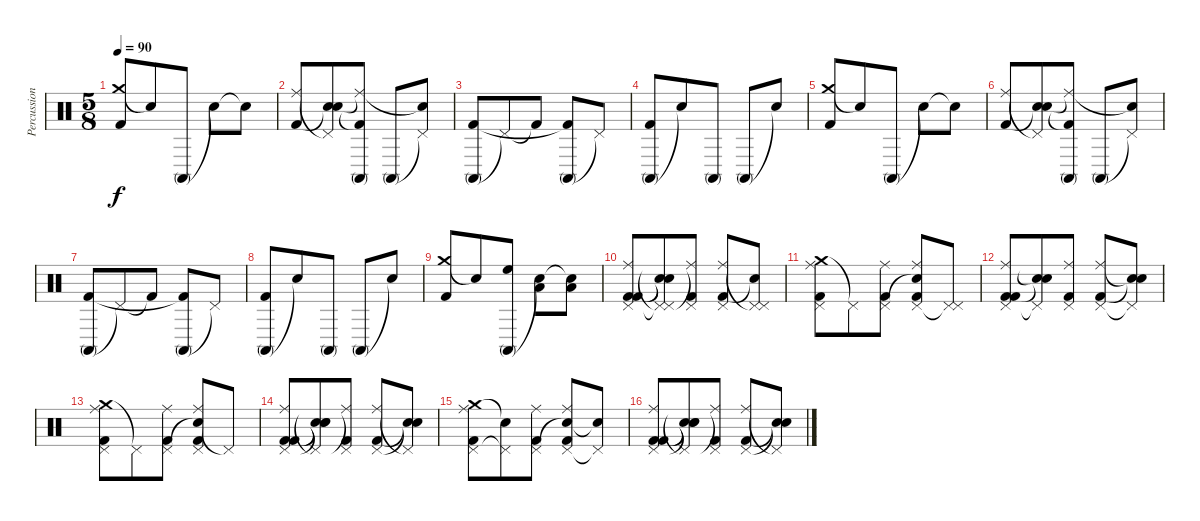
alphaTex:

\track ("Percussion" "Percussion") {instrument percussion}
\staff {score}
\articulation defaults
\ts (5 8)
\tempo 90
\clef neutral
\ks c
("Crash medium (hit)" "Kick (hit) 2").8{dy f} "Snare (hit)"{t}.8 "Conga high (mute)".8 "Snare (hit)"{t}.8 "Snare (hit)"{t}.8 |
("Ride (middle)" "Kick (hit) 2").8 ("Pedal Hi-Hat (hit)"{t} "Snare (hit)"{t} "Snare (hit)").8 ("Conga high (mute)" "Ride (middle)"{t} "Kick (hit) 2"{t}).8 "Conga high (mute)".8 ("Pedal Hi-Hat (hit)"{t} "Snare (hit)"{t}).8 |
("Conga high (mute)" "Kick (hit) 2").8 "Pedal Hi-Hat (hit)"{t}.8 "Kick (hit) 2"{t}.8 ("Conga high (mute)" "Kick (hit) 2"{t}).8 "Pedal Hi-Hat (hit)"{t}.8 |
("Conga high (mute)" "Kick (hit) 2").8 "Snare (hit)"{t}.8 "Conga high (mute)".8 "Conga high (mute)".8 "Snare (hit)"{t}.8 |
("Crash medium (hit)" "Kick (hit) 2").8 "Snare (hit)"{t}.8 "Conga high (mute)".8 "Snare (hit)"{t}.8 "Snare (hit)"{t}.8 |
("Ride (middle)" "Kick (hit) 2").8 ("Pedal Hi-Hat (hit)"{t} "Snare (hit)"{t} "Snare (hit)").8 ("Conga high (mute)" "Ride (middle)"{t} "Kick (hit) 2"{t}).8 "Conga high (mute)".8 ("Pedal Hi-Hat (hit)"{t} "Snare (hit)"{t}).8 |
("Conga high (mute)" "Kick (hit) 2").8 "Pedal Hi-Hat (hit)"{t}.8 "Kick (hit) 2"{t}.8 ("Conga high (mute)" "Kick (hit) 2"{t}).8 "Pedal Hi-Hat (hit)"{t}.8 |
("Conga high (mute)" "Kick (hit) 2").8 "Snare (hit)"{t}.8 "Conga high (mute)".8 "Conga high (mute)".8 "Snare (hit)"{t}.8 |
("Crash medium (hit)" "Kick (hit) 2").8 "Snare (hit)"{t}.8 ("Conga high (mute)" "High Floor Tom (hit)").8 ("Snare (hit)"{t} "Low Tom (hit)").8 ("Snare (hit)"{t} "Low Floor Tom (hit)").8 |
("Pedal Hi-Hat (hit)" "Ride (middle)" "Kick (hit) 2" "Kick (hit) 2").8 ("Pedal Hi-Hat (hit)"{t} "Pedal Hi-Hat (hit)"{t} "Snare (hit)"{t} "Snare (hit)"{t}).8 ("Pedal Hi-Hat (hit)" "Ride (middle)"{t} "Kick (hit) 2").8 ("Pedal Hi-Hat (hit)" "Ride (middle)" "Kick (hit) 2").8 ("Pedal Hi-Hat (hit)" "Pedal Hi-Hat (hit)"{t} "Snare (hit)"{t}).8 |
("Crash medium (hit)" "Pedal Hi-Hat (hit)" "Ride (middle)" "Kick (hit) 2").8 "Pedal Hi-Hat (hit)"{t}.8 ("Pedal Hi-Hat (hit)" "Ride (middle)" "Kick (hit) 2").8 ("Snare (hit)"{t} "Pedal Hi-Hat (hit)" "Ride (middle)" "Kick (hit) 2").8 ("Pedal Hi-Hat (hit)" "Pedal Hi-Hat (hit)"{t}).8 |
("Pedal Hi-Hat (hit)" "Ride (middle)" "Kick (hit) 2" "Kick (hit) 2").8 ("Pedal Hi-Hat (hit)"{t} "Snare (hit)"{t} "Snare (hit)"{t}).8 ("Pedal Hi-Hat (hit)" "Ride (middle)" "Kick (hit) 2").8 ("Pedal Hi-Hat (hit)" "Ride (middle)" "Kick (hit) 2").8 ("Pedal Hi-Hat (hit)"{t} "Snare (hit)"{t} "Snare (hit)"{t}).8 |
("Crash medium (hit)" "Pedal Hi-Hat (hit)" "Ride (middle)" "Kick (hit) 2").8 "Pedal Hi-Hat (hit)"{t}.8 ("Pedal Hi-Hat (hit)" "Ride (middle)" "Kick (hit) 2").8 ("Snare (hit)"{t} "Pedal Hi-Hat (hit)" "Ride (middle)" "Kick (hit) 2").8 "Pedal Hi-Hat (hit)"{t}.8 |
("Pedal Hi-Hat (hit)" "Ride (middle)" "Kick (hit) 2" "Kick (hit) 2").8 ("Snare (hit)"{t} "Pedal Hi-Hat (hit)"{t} "Snare (hit)"{t} "Snare (hit)"{t}).8 ("Pedal Hi-Hat (hit)" "Ride (middle)"{t} "Kick (hit) 2").8 ("Pedal Hi-Hat (hit)" "Ride (middle)" "Kick (hit) 2").8 ("Snare (hit)"{t} "Pedal Hi-Hat (hit)"{t} "Snare (hit)"{t}).8 |
("Crash medium (hit)" "Pedal Hi-Hat (hit)" "Ride (middle)" "Kick (hit) 2").8 ("Snare (hit)"{t} "Pedal Hi-Hat (hit)"{t}).8 ("Pedal Hi-Hat (hit)" "Ride (middle)" "Kick (hit) 2").8 ("Snare (hit)"{t} "Pedal Hi-Hat (hit)" "Ride (middle)" "Kick (hit) 2").8 ("Snare (hit)"{t} "Pedal Hi-Hat (hit)"{t}).8 |
("Pedal Hi-Hat (hit)" "Ride (middle)" "Kick (hit) 2" "Kick (hit) 2").8 ("Snare (hit)"{t} "Pedal Hi-Hat (hit)"{t} "Snare (hit)"{t} "Snare (hit)"{t}).8 ("Pedal Hi-Hat (hit)" "Ride (middle)"{t} "Kick (hit) 2").8 ("Pedal Hi-Hat (hit)" "Ride (middle)" "Kick (hit) 2").8 ("Snare (hit)"{t} "Pedal Hi-Hat (hit)"{t} "Snare (hit)"{t}).8
